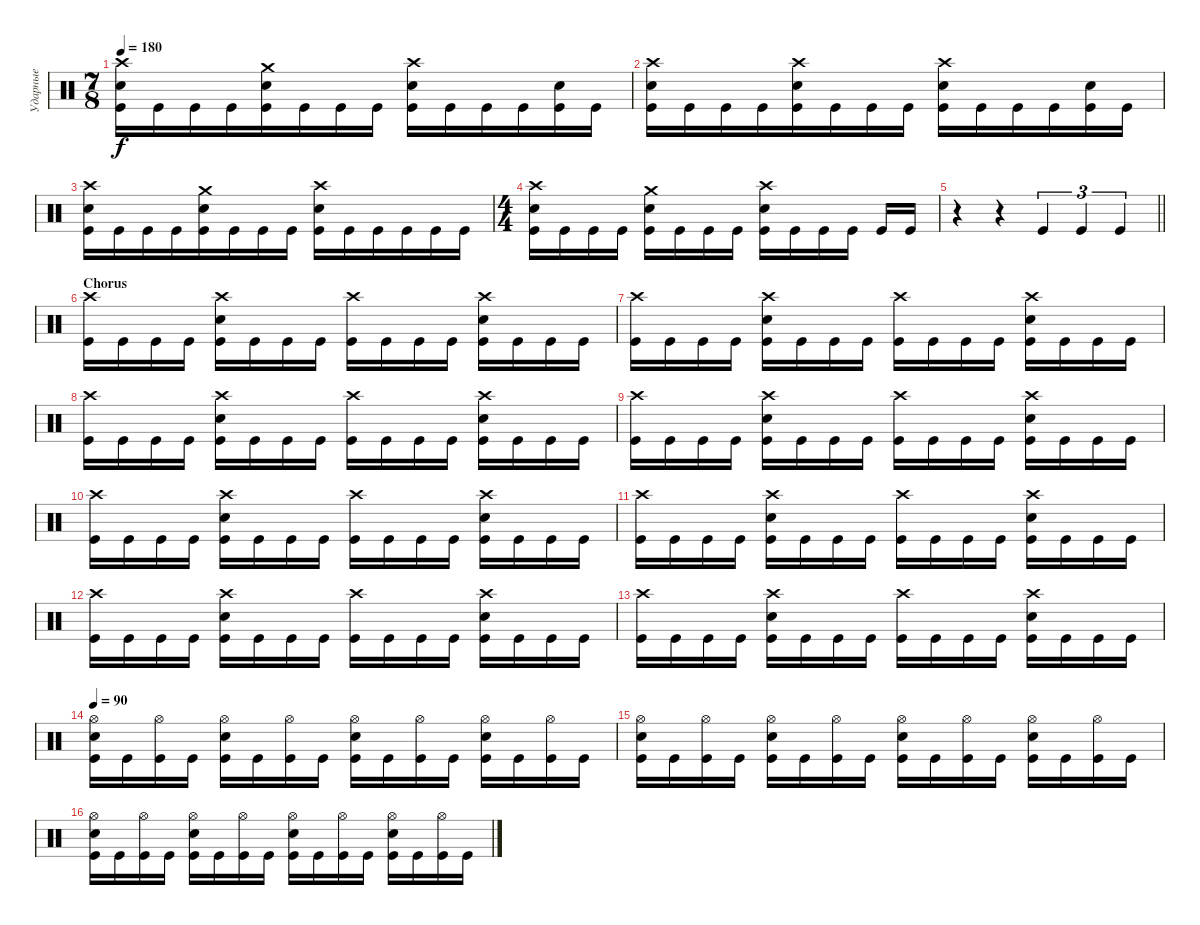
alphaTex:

\track ("Ударные" "Ударные") {instrument percussion}
\staff {score}
\articulation defaults
\ts (7 8)
\tempo 180
\clef neutral
\ks c
("Crash high (hit)" "Electric Snare (hit)" "Kick (hit)").16{dy f} "Kick (hit)".16 "Kick (hit)".16 "Kick (hit)".16 ("Crash medium (hit)" "Electric Snare (hit)" "Kick (hit)").16 "Kick (hit)".16 "Kick (hit)".16 "Kick (hit)".16 ("Crash high (hit)" "Electric Snare (hit)" "Kick (hit)").16 "Kick (hit)".16 "Kick (hit)".16 "Kick (hit)".16 ("Electric Snare (hit)" "Kick (hit)").16 "Kick (hit)".16 |
("Crash high (hit)" "Electric Snare (hit)" "Kick (hit)").16 "Kick (hit)".16 "Kick (hit)".16 "Kick (hit)".16 ("Crash high (hit)" "Electric Snare (hit)" "Kick (hit)").16 "Kick (hit)".16 "Kick (hit)".16 "Kick (hit)".16 ("Crash high (hit)" "Electric Snare (hit)" "Kick (hit)").16 "Kick (hit)".16 "Kick (hit)".16 "Kick (hit)".16 ("Electric Snare (hit)" "Kick (hit)").16 "Kick (hit)".16 |
("Crash high (hit)" "Electric Snare (hit)" "Kick (hit)").16 "Kick (hit)".16 "Kick (hit)".16 "Kick (hit)".16 ("Crash medium (hit)" "Electric Snare (hit)" "Kick (hit)").16 "Kick (hit)".16 "Kick (hit)".16 "Kick (hit)".16 ("Crash high (hit)" "Electric Snare (hit)" "Kick (hit)").16 "Kick (hit)".16 "Kick (hit)".16 "Kick (hit)".16 "Kick (hit)".16 "Kick (hit)".16 |
\ts (4 4)
("Crash high (hit)" "Electric Snare (hit)" "Kick (hit)").16 "Kick (hit)".16 "Kick (hit)".16 "Kick (hit)".16 ("Crash medium (hit)" "Electric Snare (hit)" "Kick (hit)").16 "Kick (hit)".16 "Kick (hit)".16 "Kick (hit)".16 ("Crash high (hit)" "Electric Snare (hit)" "Kick (hit)").16 "Kick (hit)".16 "Kick (hit)".16 "Kick (hit)".16 "Kick (hit)".16 "Kick (hit)".16 |
\barLineRight lightlight
r.4 r.4 "Kick (hit)".4{tu (3 2)} "Kick (hit)".4{tu (3 2)} "Kick (hit)".4{tu (3 2)} |
\section ("" "Chorus")
("Crash high (hit)" "Kick (hit)").16 "Kick (hit)".16 "Kick (hit)".16 "Kick (hit)".16 ("Crash high (hit)" "Electric Snare (hit)" "Kick (hit)").16 "Kick (hit)".16 "Kick (hit)".16 "Kick (hit)".16 ("Crash high (hit)" "Kick (hit)").16 "Kick (hit)".16 "Kick (hit)".16 "Kick (hit)".16 ("Crash high (hit)" "Electric Snare (hit)" "Kick (hit)").16 "Kick (hit)".16 "Kick (hit)".16 "Kick (hit)".16 |
("Crash high (hit)" "Kick (hit)").16 "Kick (hit)".16 "Kick (hit)".16 "Kick (hit)".16 ("Crash high (hit)" "Electric Snare (hit)" "Kick (hit)").16 "Kick (hit)".16 "Kick (hit)".16 "Kick (hit)".16 ("Crash high (hit)" "Kick (hit)").16 "Kick (hit)".16 "Kick (hit)".16 "Kick (hit)".16 ("Crash high (hit)" "Electric Snare (hit)" "Kick (hit)").16 "Kick (hit)".16 "Kick (hit)".16 "Kick (hit)".16 |
("Crash high (hit)" "Kick (hit)").16 "Kick (hit)".16 "Kick (hit)".16 "Kick (hit)".16 ("Crash high (hit)" "Electric Snare (hit)" "Kick (hit)").16 "Kick (hit)".16 "Kick (hit)".16 "Kick (hit)".16 ("Crash high (hit)" "Kick (hit)").16 "Kick (hit)".16 "Kick (hit)".16 "Kick (hit)".16 ("Crash high (hit)" "Electric Snare (hit)" "Kick (hit)").16 "Kick (hit)".16 "Kick (hit)".16 "Kick (hit)".16 |
("Crash high (hit)" "Kick (hit)").16 "Kick (hit)".16 "Kick (hit)".16 "Kick (hit)".16 ("Crash high (hit)" "Electric Snare (hit)" "Kick (hit)").16 "Kick (hit)".16 "Kick (hit)".16 "Kick (hit)".16 ("Crash high (hit)" "Kick (hit)").16 "Kick (hit)".16 "Kick (hit)".16 "Kick (hit)".16 ("Crash high (hit)" "Electric Snare (hit)" "Kick (hit)").16 "Kick (hit)".16 "Kick (hit)".16 "Kick (hit)".16 |
("Crash high (hit)" "Kick (hit)").16 "Kick (hit)".16 "Kick (hit)".16 "Kick (hit)".16 ("Crash high (hit)" "Electric Snare (hit)" "Kick (hit)").16 "Kick (hit)".16 "Kick (hit)".16 "Kick (hit)".16 ("Crash high (hit)" "Kick (hit)").16 "Kick (hit)".16 "Kick (hit)".16 "Kick (hit)".16 ("Crash high (hit)" "Electric Snare (hit)" "Kick (hit)").16 "Kick (hit)".16 "Kick (hit)".16 "Kick (hit)".16 |
("Crash high (hit)" "Kick (hit)").16 "Kick (hit)".16 "Kick (hit)".16 "Kick (hit)".16 ("Crash high (hit)" "Electric Snare (hit)" "Kick (hit)").16 "Kick (hit)".16 "Kick (hit)".16 "Kick (hit)".16 ("Crash high (hit)" "Kick (hit)").16 "Kick (hit)".16 "Kick (hit)".16 "Kick (hit)".16 ("Crash high (hit)" "Electric Snare (hit)" "Kick (hit)").16 "Kick (hit)".16 "Kick (hit)".16 "Kick (hit)".16 |
("Crash high (hit)" "Kick (hit)").16 "Kick (hit)".16 "Kick (hit)".16 "Kick (hit)".16 ("Crash high (hit)" "Electric Snare (hit)" "Kick (hit)").16 "Kick (hit)".16 "Kick (hit)".16 "Kick (hit)".16 ("Crash high (hit)" "Kick (hit)").16 "Kick (hit)".16 "Kick (hit)".16 "Kick (hit)".16 ("Crash high (hit)" "Electric Snare (hit)" "Kick (hit)").16 "Kick (hit)".16 "Kick (hit)".16 "Kick (hit)".16 |
("Crash high (hit)" "Kick (hit)").16 "Kick (hit)".16 "Kick (hit)".16 "Kick (hit)".16 ("Crash high (hit)" "Electric Snare (hit)" "Kick (hit)").16 "Kick (hit)".16 "Kick (hit)".16 "Kick (hit)".16 ("Crash high (hit)" "Kick (hit)").16 "Kick (hit)".16 "Kick (hit)".16 "Kick (hit)".16 ("Crash high (hit)" "Electric Snare (hit)" "Kick (hit)").16 "Kick (hit)".16 "Kick (hit)".16 "Kick (hit)".16 |
\tempo 90
("Hi-Hat (open)" "Electric Snare (hit)" "Kick (hit)").16 "Kick (hit)".16 ("Hi-Hat (open)" "Kick (hit)").16 "Kick (hit)".16 ("Hi-Hat (open)" "Electric Snare (hit)" "Kick (hit)").16 "Kick (hit)".16 ("Hi-Hat (open)" "Kick (hit)").16 "Kick (hit)".16 ("Hi-Hat (open)" "Electric Snare (hit)" "Kick (hit)").16 "Kick (hit)".16 ("Hi-Hat (open)" "Kick (hit)").16 "Kick (hit)".16 ("Hi-Hat (open)" "Electric Snare (hit)" "Kick (hit)").16 "Kick (hit)".16 ("Hi-Hat (open)" "Kick (hit)").16 "Kick (hit)".16 |
("Hi-Hat (open)" "Electric Snare (hit)" "Kick (hit)").16 "Kick (hit)".16 ("Hi-Hat (open)" "Kick (hit)").16 "Kick (hit)".16 ("Hi-Hat (open)" "Electric Snare (hit)" "Kick (hit)").16 "Kick (hit)".16 ("Hi-Hat (open)" "Kick (hit)").16 "Kick (hit)".16 ("Hi-Hat (open)" "Electric Snare (hit)" "Kick (hit)").16 "Kick (hit)".16 ("Hi-Hat (open)" "Kick (hit)").16 "Kick (hit)".16 ("Hi-Hat (open)" "Electric Snare (hit)" "Kick (hit)").16 "Kick (hit)".16 ("Hi-Hat (open)" "Kick (hit)").16 "Kick (hit)".16 |
("Hi-Hat (open)" "Electric Snare (hit)" "Kick (hit)").16 "Kick (hit)".16 ("Hi-Hat (open)" "Kick (hit)").16 "Kick (hit)".16 ("Hi-Hat (open)" "Electric Snare (hit)" "Kick (hit)").16 "Kick (hit)".16 ("Hi-Hat (open)" "Kick (hit)").16 "Kick (hit)".16 ("Hi-Hat (open)" "Electric Snare (hit)" "Kick (hit)").16 "Kick (hit)".16 ("Hi-Hat (open)" "Kick (hit)").16 "Kick (hit)".16 ("Hi-Hat (open)" "Electric Snare (hit)" "Kick (hit)").16 "Kick (hit)".16 ("Hi-Hat (open)" "Kick (hit)").16 "Kick (hit)".16
